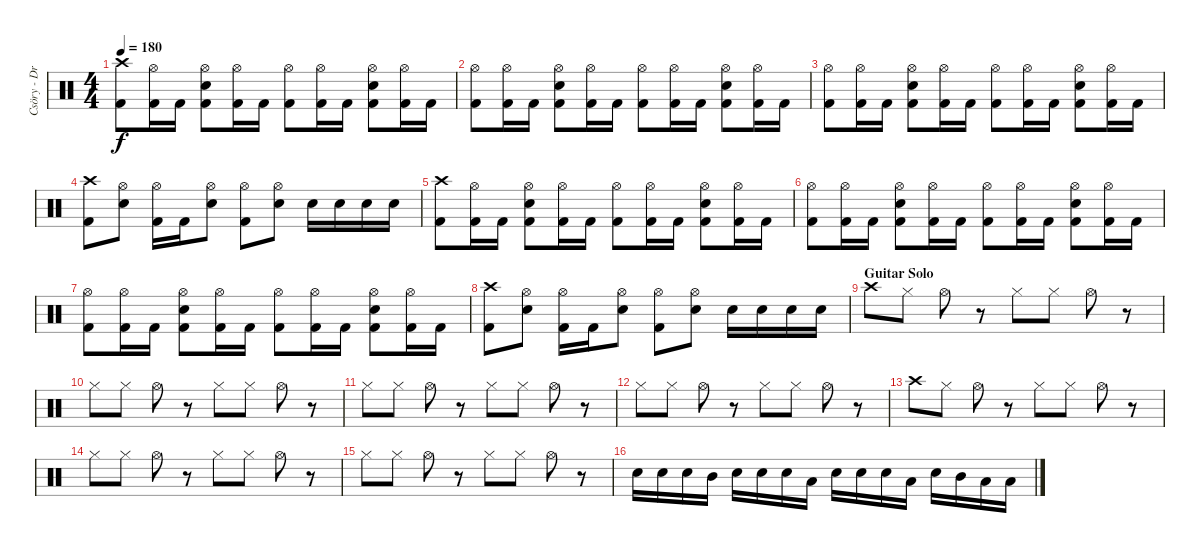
\track ("Csöry - DrumZ" "Csöry - Dr") {instrument percussion}
\staff {score}
\articulation defaults
\ts (4 4)
\tempo 180
\clef neutral
\ks c
("Crash high (hit)" "Kick (hit) 2").8{dy f} ("Hi-Hat (open)" "Kick (hit) 2").16 "Kick (hit) 2".16 ("Hi-Hat (open)" "Snare (hit) 2" "Kick (hit) 2").8 ("Hi-Hat (open)" "Kick (hit) 2").16 "Kick (hit) 2".16 ("Hi-Hat (open)" "Kick (hit) 2").8 ("Hi-Hat (open)" "Kick (hit) 2").16 "Kick (hit) 2".16 ("Hi-Hat (open)" "Snare (hit) 2" "Kick (hit) 2").8 ("Hi-Hat (open)" "Kick (hit) 2").16 "Kick (hit) 2".16 |
("Hi-Hat (open)" "Kick (hit) 2").8 ("Hi-Hat (open)" "Kick (hit) 2").16 "Kick (hit) 2".16 ("Hi-Hat (open)" "Snare (hit) 2" "Kick (hit) 2").8 ("Hi-Hat (open)" "Kick (hit) 2").16 "Kick (hit) 2".16 ("Hi-Hat (open)" "Kick (hit) 2").8 ("Hi-Hat (open)" "Kick (hit) 2").16 "Kick (hit) 2".16 ("Hi-Hat (open)" "Snare (hit) 2" "Kick (hit) 2").8 ("Hi-Hat (open)" "Kick (hit) 2").16 "Kick (hit) 2".16 |
("Hi-Hat (open)" "Kick (hit) 2").8 ("Hi-Hat (open)" "Kick (hit) 2").16 "Kick (hit) 2".16 ("Hi-Hat (open)" "Snare (hit) 2" "Kick (hit) 2").8 ("Hi-Hat (open)" "Kick (hit) 2").16 "Kick (hit) 2".16 ("Hi-Hat (open)" "Kick (hit) 2").8 ("Hi-Hat (open)" "Kick (hit) 2").16 "Kick (hit) 2".16 ("Hi-Hat (open)" "Snare (hit) 2" "Kick (hit) 2").8 ("Hi-Hat (open)" "Kick (hit) 2").16 "Kick (hit) 2".16 |
("Crash high (hit)" "Kick (hit) 2").8 ("Hi-Hat (open)" "Snare (hit) 2").8 ("Hi-Hat (open)" "Kick (hit) 2").16 "Kick (hit) 2".16 ("Hi-Hat (open)" "Snare (hit) 2").8 ("Hi-Hat (open)" "Kick (hit) 2").8 ("Hi-Hat (open)" "Snare (hit) 2").8 "Snare (hit) 2".16 "Snare (hit) 2".16 "Snare (hit) 2".16 "Snare (hit) 2".16 |
("Crash high (hit)" "Kick (hit) 2").8 ("Hi-Hat (open)" "Kick (hit) 2").16 "Kick (hit) 2".16 ("Hi-Hat (open)" "Snare (hit) 2" "Kick (hit) 2").8 ("Hi-Hat (open)" "Kick (hit) 2").16 "Kick (hit) 2".16 ("Hi-Hat (open)" "Kick (hit) 2").8 ("Hi-Hat (open)" "Kick (hit) 2").16 "Kick (hit) 2".16 ("Hi-Hat (open)" "Snare (hit) 2" "Kick (hit) 2").8 ("Hi-Hat (open)" "Kick (hit) 2").16 "Kick (hit) 2".16 |
("Hi-Hat (open)" "Kick (hit) 2").8 ("Hi-Hat (open)" "Kick (hit) 2").16 "Kick (hit) 2".16 ("Hi-Hat (open)" "Snare (hit) 2" "Kick (hit) 2").8 ("Hi-Hat (open)" "Kick (hit) 2").16 "Kick (hit) 2".16 ("Hi-Hat (open)" "Kick (hit) 2").8 ("Hi-Hat (open)" "Kick (hit) 2").16 "Kick (hit) 2".16 ("Hi-Hat (open)" "Snare (hit) 2" "Kick (hit) 2").8 ("Hi-Hat (open)" "Kick (hit) 2").16 "Kick (hit) 2".16 |
("Hi-Hat (open)" "Kick (hit) 2").8 ("Hi-Hat (open)" "Kick (hit) 2").16 "Kick (hit) 2".16 ("Hi-Hat (open)" "Snare (hit) 2" "Kick (hit) 2").8 ("Hi-Hat (open)" "Kick (hit) 2").16 "Kick (hit) 2".16 ("Hi-Hat (open)" "Kick (hit) 2").8 ("Hi-Hat (open)" "Kick (hit) 2").16 "Kick (hit) 2".16 ("Hi-Hat (open)" "Snare (hit) 2" "Kick (hit) 2").8 ("Hi-Hat (open)" "Kick (hit) 2").16 "Kick (hit) 2".16 |
("Crash high (hit)" "Kick (hit) 2").8 ("Hi-Hat (open)" "Snare (hit) 2").8 ("Hi-Hat (open)" "Kick (hit) 2").16 "Kick (hit) 2".16 ("Hi-Hat (open)" "Snare (hit) 2").8 ("Hi-Hat (open)" "Kick (hit) 2").8 ("Hi-Hat (open)" "Snare (hit) 2").8 "Snare (hit) 2".16 "Snare (hit) 2".16 "Snare (hit) 2".16 "Snare (hit) 2".16 |
\section ("" "Guitar Solo")
"Crash high (hit)".8 "Hi-Hat (closed)".8 "Hi-Hat (open)".8 r.8 "Hi-Hat (closed)".8 "Hi-Hat (closed)".8 "Hi-Hat (open)".8 r.8 |
"Hi-Hat (closed)".8 "Hi-Hat (closed)".8 "Hi-Hat (open)".8 r.8 "Hi-Hat (closed)".8 "Hi-Hat (closed)".8 "Hi-Hat (open)".8 r.8 |
"Hi-Hat (closed)".8 "Hi-Hat (closed)".8 "Hi-Hat (open)".8 r.8 "Hi-Hat (closed)".8 "Hi-Hat (closed)".8 "Hi-Hat (open)".8 r.8 |
"Hi-Hat (closed)".8 "Hi-Hat (closed)".8 "Hi-Hat (open)".8 r.8 "Hi-Hat (closed)".8 "Hi-Hat (closed)".8 "Hi-Hat (open)".8 r.8 |
"Crash high (hit)".8 "Hi-Hat (closed)".8 "Hi-Hat (open)".8 r.8 "Hi-Hat (closed)".8 "Hi-Hat (closed)".8 "Hi-Hat (open)".8 r.8 |
"Hi-Hat (closed)".8 "Hi-Hat (closed)".8 "Hi-Hat (open)".8 r.8 "Hi-Hat (closed)".8 "Hi-Hat (closed)".8 "Hi-Hat (open)".8 r.8 |
"Hi-Hat (closed)".8 "Hi-Hat (closed)".8 "Hi-Hat (open)".8 r.8 "Hi-Hat (closed)".8 "Hi-Hat (closed)".8 "Hi-Hat (open)".8 r.8 |
"Snare (hit) 2".16 "Snare (hit) 2".16 "Snare (hit) 2".16 "Mid Tom (hit)".16 "Snare (hit) 2".16 "Snare (hit) 2".16 "Snare (hit) 2".16 "Low Tom (hit)".16 "Snare (hit) 2".16 "Snare (hit) 2".16 "Snare (hit) 2".16 "Low Floor Tom (hit)".16 "Snare (hit) 2".16 "Mid Tom (hit)".16 "Low Tom (hit)".16 "Low Floor Tom (hit)".16
